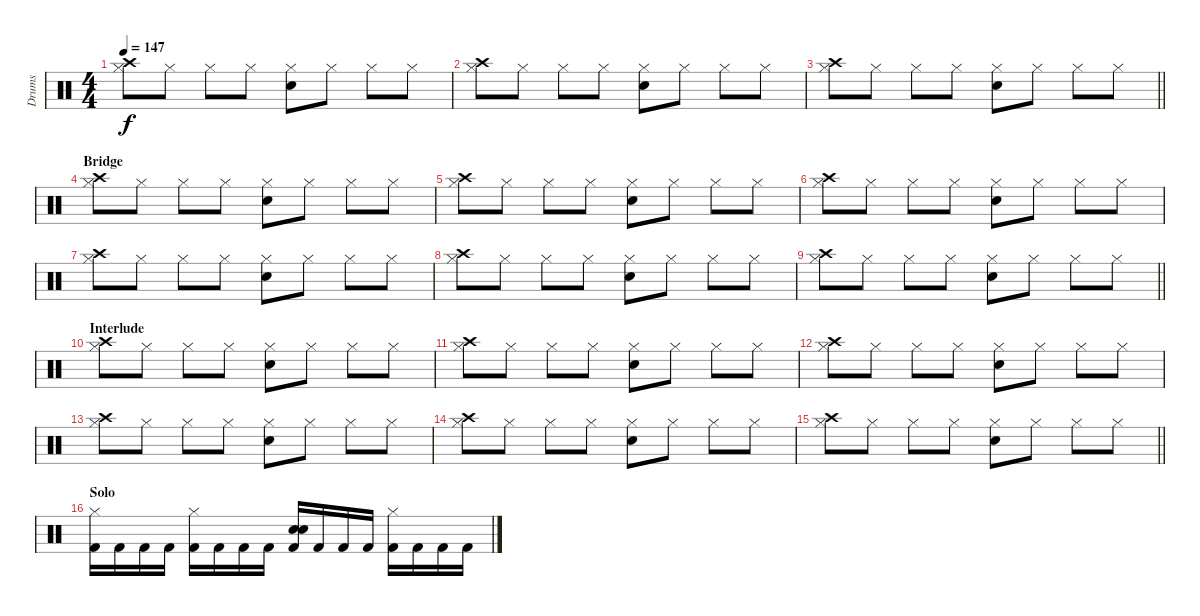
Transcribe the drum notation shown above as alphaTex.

\track ("Drums" "Drums") {instrument percussion}
\staff
\articulation defaults
\ts (4 4)
\tempo 147
\clef neutral
\ks c
("Hi-Hat (closed)" "Crash high (hit)").8{dy f} "Hi-Hat (closed)".8 "Hi-Hat (closed)".8 "Hi-Hat (closed)".8 ("Hi-Hat (closed)" "Snare (hit) 2").8 "Hi-Hat (closed)".8 "Hi-Hat (closed)".8 "Hi-Hat (closed)".8 |
("Hi-Hat (closed)" "Crash high (hit)").8 "Hi-Hat (closed)".8 "Hi-Hat (closed)".8 "Hi-Hat (closed)".8 ("Hi-Hat (closed)" "Snare (hit) 2").8 "Hi-Hat (closed)".8 "Hi-Hat (closed)".8 "Hi-Hat (closed)".8 |
\barLineRight lightlight
("Hi-Hat (closed)" "Crash high (hit)").8 "Hi-Hat (closed)".8 "Hi-Hat (closed)".8 "Hi-Hat (closed)".8 ("Hi-Hat (closed)" "Snare (hit) 2").8 "Hi-Hat (closed)".8 "Hi-Hat (closed)".8 "Hi-Hat (closed)".8 |
\section ("" "Bridge")
("Hi-Hat (closed)" "Crash high (hit)").8 "Hi-Hat (closed)".8 "Hi-Hat (closed)".8 "Hi-Hat (closed)".8 ("Hi-Hat (closed)" "Snare (hit) 2").8 "Hi-Hat (closed)".8 "Hi-Hat (closed)".8 "Hi-Hat (closed)".8 |
("Hi-Hat (closed)" "Crash high (hit)").8 "Hi-Hat (closed)".8 "Hi-Hat (closed)".8 "Hi-Hat (closed)".8 ("Hi-Hat (closed)" "Snare (hit) 2").8 "Hi-Hat (closed)".8 "Hi-Hat (closed)".8 "Hi-Hat (closed)".8 |
("Hi-Hat (closed)" "Crash high (hit)").8 "Hi-Hat (closed)".8 "Hi-Hat (closed)".8 "Hi-Hat (closed)".8 ("Hi-Hat (closed)" "Snare (hit) 2").8 "Hi-Hat (closed)".8 "Hi-Hat (closed)".8 "Hi-Hat (closed)".8 |
("Hi-Hat (closed)" "Crash high (hit)").8 "Hi-Hat (closed)".8 "Hi-Hat (closed)".8 "Hi-Hat (closed)".8 ("Hi-Hat (closed)" "Snare (hit) 2").8 "Hi-Hat (closed)".8 "Hi-Hat (closed)".8 "Hi-Hat (closed)".8 |
("Hi-Hat (closed)" "Crash high (hit)").8 "Hi-Hat (closed)".8 "Hi-Hat (closed)".8 "Hi-Hat (closed)".8 ("Hi-Hat (closed)" "Snare (hit) 2").8 "Hi-Hat (closed)".8 "Hi-Hat (closed)".8 "Hi-Hat (closed)".8 |
\barLineRight lightlight
("Hi-Hat (closed)" "Crash high (hit)").8 "Hi-Hat (closed)".8 "Hi-Hat (closed)".8 "Hi-Hat (closed)".8 ("Hi-Hat (closed)" "Snare (hit) 2").8 "Hi-Hat (closed)".8 "Hi-Hat (closed)".8 "Hi-Hat (closed)".8 |
\section ("" "Interlude")
("Hi-Hat (closed)" "Crash high (hit)").8 "Hi-Hat (closed)".8 "Hi-Hat (closed)".8 "Hi-Hat (closed)".8 ("Hi-Hat (closed)" "Snare (hit) 2").8 "Hi-Hat (closed)".8 "Hi-Hat (closed)".8 "Hi-Hat (closed)".8 |
("Hi-Hat (closed)" "Crash high (hit)").8 "Hi-Hat (closed)".8 "Hi-Hat (closed)".8 "Hi-Hat (closed)".8 ("Hi-Hat (closed)" "Snare (hit) 2").8 "Hi-Hat (closed)".8 "Hi-Hat (closed)".8 "Hi-Hat (closed)".8 |
("Hi-Hat (closed)" "Crash high (hit)").8 "Hi-Hat (closed)".8 "Hi-Hat (closed)".8 "Hi-Hat (closed)".8 ("Hi-Hat (closed)" "Snare (hit) 2").8 "Hi-Hat (closed)".8 "Hi-Hat (closed)".8 "Hi-Hat (closed)".8 |
("Hi-Hat (closed)" "Crash high (hit)").8 "Hi-Hat (closed)".8 "Hi-Hat (closed)".8 "Hi-Hat (closed)".8 ("Hi-Hat (closed)" "Snare (hit) 2").8 "Hi-Hat (closed)".8 "Hi-Hat (closed)".8 "Hi-Hat (closed)".8 |
("Hi-Hat (closed)" "Crash high (hit)").8 "Hi-Hat (closed)".8 "Hi-Hat (closed)".8 "Hi-Hat (closed)".8 ("Hi-Hat (closed)" "Snare (hit) 2").8 "Hi-Hat (closed)".8 "Hi-Hat (closed)".8 "Hi-Hat (closed)".8 |
\barLineRight lightlight
("Hi-Hat (closed)" "Crash high (hit)").8 "Hi-Hat (closed)".8 "Hi-Hat (closed)".8 "Hi-Hat (closed)".8 ("Hi-Hat (closed)" "Snare (hit) 2").8 "Hi-Hat (closed)".8 "Hi-Hat (closed)".8 "Hi-Hat (closed)".8 |
\section ("" "Solo")
("Hi-Hat (closed)" "Kick (hit) 2").16 "Kick (hit) 2".16 "Kick (hit) 2".16 "Kick (hit) 2".16 ("Hi-Hat (closed)" "Kick (hit) 2").16 "Kick (hit) 2".16 "Kick (hit) 2".16 "Kick (hit) 2".16 ("Kick (hit) 2" "Electric Snare (hit)" "Snare (hit) 2").16 "Kick (hit) 2".16 "Kick (hit) 2".16 "Kick (hit) 2".16 ("Hi-Hat (closed)" "Kick (hit) 2").16 "Kick (hit) 2".16 "Kick (hit) 2".16 "Kick (hit) 2".16
